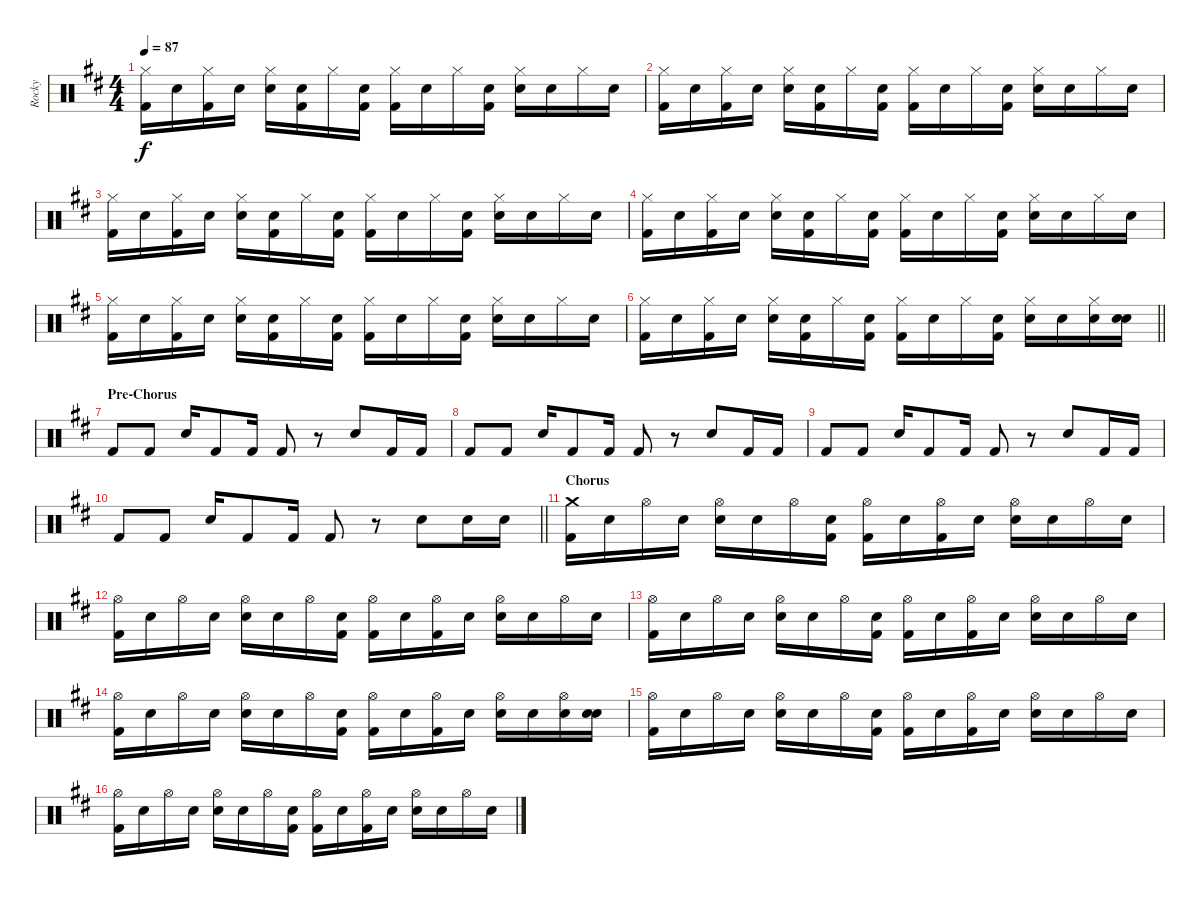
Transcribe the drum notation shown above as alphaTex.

\track ("Rocky" "Rocky") {instrument percussion}
\staff {score}
\articulation defaults
\ts (4 4)
\tempo 87
\clef neutral
\ks d
("Hi-Hat (closed)" "Kick (hit) 2").16{dy f} "Snare (hit)".16 ("Hi-Hat (closed)" "Kick (hit) 2").16 "Snare (hit)".16 ("Hi-Hat (closed)" "Electric Snare (hit)").16 ("Snare (hit)" "Kick (hit) 2").16 "Hi-Hat (closed)".16 ("Snare (hit)" "Kick (hit) 2").16 ("Hi-Hat (closed)" "Kick (hit) 2").16 "Snare (hit)".16 "Hi-Hat (closed)".16 ("Snare (hit)" "Kick (hit) 2").16 ("Hi-Hat (closed)" "Electric Snare (hit)").16 "Snare (hit)".16 "Hi-Hat (closed)".16 "Snare (hit)".16 |
("Hi-Hat (closed)" "Kick (hit) 2").16 "Snare (hit)".16 ("Hi-Hat (closed)" "Kick (hit) 2").16 "Snare (hit)".16 ("Hi-Hat (closed)" "Electric Snare (hit)").16 ("Snare (hit)" "Kick (hit) 2").16 "Hi-Hat (closed)".16 ("Snare (hit)" "Kick (hit) 2").16 ("Hi-Hat (closed)" "Kick (hit) 2").16 "Snare (hit)".16 "Hi-Hat (closed)".16 ("Snare (hit)" "Kick (hit) 2").16 ("Hi-Hat (closed)" "Electric Snare (hit)").16 "Snare (hit)".16 "Hi-Hat (closed)".16 "Snare (hit)".16 |
("Hi-Hat (closed)" "Kick (hit) 2").16 "Snare (hit)".16 ("Hi-Hat (closed)" "Kick (hit) 2").16 "Snare (hit)".16 ("Hi-Hat (closed)" "Electric Snare (hit)").16 ("Snare (hit)" "Kick (hit) 2").16 "Hi-Hat (closed)".16 ("Snare (hit)" "Kick (hit) 2").16 ("Hi-Hat (closed)" "Kick (hit) 2").16 "Snare (hit)".16 "Hi-Hat (closed)".16 ("Snare (hit)" "Kick (hit) 2").16 ("Hi-Hat (closed)" "Electric Snare (hit)").16 "Snare (hit)".16 "Hi-Hat (closed)".16 "Snare (hit)".16 |
("Hi-Hat (closed)" "Kick (hit) 2").16 "Snare (hit)".16 ("Hi-Hat (closed)" "Kick (hit) 2").16 "Snare (hit)".16 ("Hi-Hat (closed)" "Electric Snare (hit)").16 ("Snare (hit)" "Kick (hit) 2").16 "Hi-Hat (closed)".16 ("Snare (hit)" "Kick (hit) 2").16 ("Hi-Hat (closed)" "Kick (hit) 2").16 "Snare (hit)".16 "Hi-Hat (closed)".16 ("Snare (hit)" "Kick (hit) 2").16 ("Hi-Hat (closed)" "Electric Snare (hit)").16 "Snare (hit)".16 "Hi-Hat (closed)".16 "Snare (hit)".16 |
("Hi-Hat (closed)" "Kick (hit) 2").16 "Snare (hit)".16 ("Hi-Hat (closed)" "Kick (hit) 2").16 "Snare (hit)".16 ("Hi-Hat (closed)" "Electric Snare (hit)").16 ("Snare (hit)" "Kick (hit) 2").16 "Hi-Hat (closed)".16 ("Snare (hit)" "Kick (hit) 2").16 ("Hi-Hat (closed)" "Kick (hit) 2").16 "Snare (hit)".16 "Hi-Hat (closed)".16 ("Snare (hit)" "Kick (hit) 2").16 ("Hi-Hat (closed)" "Electric Snare (hit)").16 "Snare (hit)".16 "Hi-Hat (closed)".16 "Snare (hit)".16 |
\barLineRight lightlight
("Hi-Hat (closed)" "Kick (hit) 2").16 "Snare (hit)".16 ("Hi-Hat (closed)" "Kick (hit) 2").16 "Snare (hit)".16 ("Hi-Hat (closed)" "Electric Snare (hit)").16 ("Snare (hit)" "Kick (hit) 2").16 "Hi-Hat (closed)".16 ("Snare (hit)" "Kick (hit) 2").16 ("Hi-Hat (closed)" "Kick (hit) 2").16 "Snare (hit)".16 "Hi-Hat (closed)".16 ("Snare (hit)" "Kick (hit) 2").16 ("Hi-Hat (closed)" "Electric Snare (hit)").16 "Snare (hit)".16 ("Hi-Hat (closed)" "Electric Snare (hit)").16 ("Snare (hit)" "Electric Snare (hit)").16 |
\section ("" "Pre-Chorus")
"Kick (hit) 2".8 "Kick (hit) 2".8 "Snare (hit) 2".16 "Kick (hit) 2".8 "Kick (hit) 2".16 "Kick (hit) 2".8 r.8 "Snare (hit) 2".8 "Kick (hit) 2".16 "Kick (hit) 2".16 |
"Kick (hit) 2".8 "Kick (hit) 2".8 "Snare (hit) 2".16 "Kick (hit) 2".8 "Kick (hit) 2".16 "Kick (hit) 2".8 r.8 "Snare (hit) 2".8 "Kick (hit) 2".16 "Kick (hit) 2".16 |
"Kick (hit) 2".8 "Kick (hit) 2".8 "Snare (hit) 2".16 "Kick (hit) 2".8 "Kick (hit) 2".16 "Kick (hit) 2".8 r.8 "Snare (hit) 2".8 "Kick (hit) 2".16 "Kick (hit) 2".16 |
\barLineRight lightlight "Kick (hit) 2".8 "Kick (hit) 2".8 "Snare (hit) 2".16 "Kick (hit) 2".8 "Kick (hit) 2".16 "Kick (hit) 2".8
r.8 "Snare (hit) 2".8 "Snare (hit) 2".16 "Snare (hit) 2".16 |
\section ("" "Chorus")
("Crash medium (hit)" "Kick (hit) 2").16 "Snare (hit)".16 "Hi-Hat (open)".16 "Snare (hit)".16 ("Hi-Hat (open)" "Electric Snare (hit)").16 "Snare (hit)".16 "Hi-Hat (open)".16 ("Snare (hit)" "Kick (hit) 2").16 ("Hi-Hat (open)" "Kick (hit) 2").16 "Snare (hit)".16 ("Hi-Hat (open)" "Kick (hit) 2").16 "Snare (hit)".16 ("Hi-Hat (open)" "Electric Snare (hit)").16 "Snare (hit)".16 "Hi-Hat (open)".16 "Snare (hit)".16 |
("Hi-Hat (open)" "Kick (hit) 2").16 "Snare (hit)".16 "Hi-Hat (open)".16 "Snare (hit)".16 ("Hi-Hat (open)" "Electric Snare (hit)").16 "Snare (hit)".16 "Hi-Hat (open)".16 ("Snare (hit)" "Kick (hit) 2").16 ("Hi-Hat (open)" "Kick (hit) 2").16 "Snare (hit)".16 ("Hi-Hat (open)" "Kick (hit) 2").16 "Snare (hit)".16 ("Hi-Hat (open)" "Electric Snare (hit)").16 "Snare (hit)".16 "Hi-Hat (open)".16 "Snare (hit)".16 |
("Hi-Hat (open)" "Kick (hit) 2").16 "Snare (hit)".16 "Hi-Hat (open)".16 "Snare (hit)".16 ("Hi-Hat (open)" "Electric Snare (hit)").16 "Snare (hit)".16 "Hi-Hat (open)".16 ("Snare (hit)" "Kick (hit) 2").16 ("Hi-Hat (open)" "Kick (hit) 2").16 "Snare (hit)".16 ("Hi-Hat (open)" "Kick (hit) 2").16 "Snare (hit)".16 ("Hi-Hat (open)" "Electric Snare (hit)").16 "Snare (hit)".16 "Hi-Hat (open)".16 "Snare (hit)".16 |
("Hi-Hat (open)" "Kick (hit) 2").16 "Snare (hit)".16 "Hi-Hat (open)".16 "Snare (hit)".16 ("Hi-Hat (open)" "Electric Snare (hit)").16 "Snare (hit)".16 "Hi-Hat (open)".16 ("Snare (hit)" "Kick (hit) 2").16 ("Hi-Hat (open)" "Kick (hit) 2").16 "Snare (hit)".16 ("Hi-Hat (open)" "Kick (hit) 2").16 "Snare (hit)".16 ("Hi-Hat (open)" "Electric Snare (hit)").16 "Snare (hit)".16 ("Hi-Hat (open)" "Electric Snare (hit)").16 ("Snare (hit)" "Electric Snare (hit)").16 |
("Hi-Hat (open)" "Kick (hit) 2").16 "Snare (hit)".16 "Hi-Hat (open)".16 "Snare (hit)".16 ("Hi-Hat (open)" "Electric Snare (hit)").16 "Snare (hit)".16 "Hi-Hat (open)".16 ("Snare (hit)" "Kick (hit) 2").16 ("Hi-Hat (open)" "Kick (hit) 2").16 "Snare (hit)".16 ("Hi-Hat (open)" "Kick (hit) 2").16 "Snare (hit)".16 ("Hi-Hat (open)" "Electric Snare (hit)").16 "Snare (hit)".16 "Hi-Hat (open)".16 "Snare (hit)".16 |
("Hi-Hat (open)" "Kick (hit) 2").16 "Snare (hit)".16 "Hi-Hat (open)".16 "Snare (hit)".16 ("Hi-Hat (open)" "Electric Snare (hit)").16 "Snare (hit)".16 "Hi-Hat (open)".16 ("Snare (hit)" "Kick (hit) 2").16 ("Hi-Hat (open)" "Kick (hit) 2").16 "Snare (hit)".16 ("Hi-Hat (open)" "Kick (hit) 2").16 "Snare (hit)".16 ("Hi-Hat (open)" "Electric Snare (hit)").16 "Snare (hit)".16 "Hi-Hat (open)".16 "Snare (hit)".16
